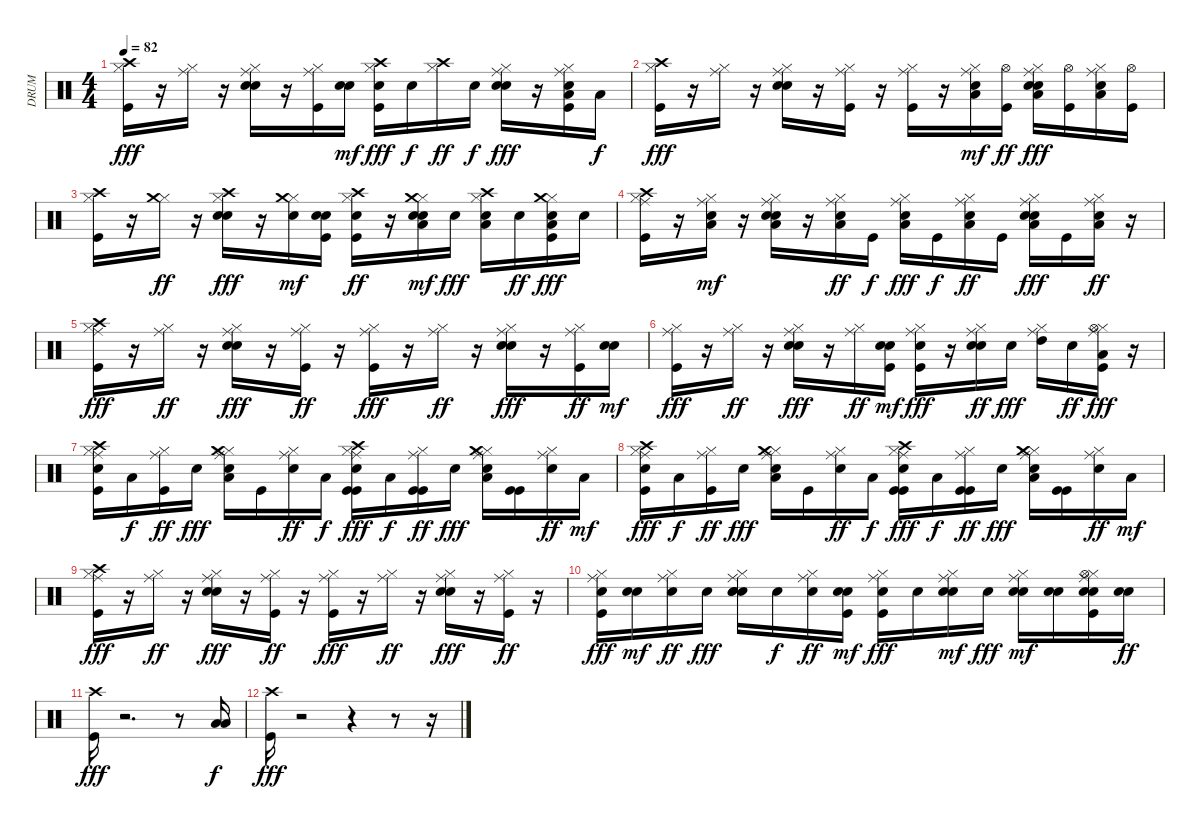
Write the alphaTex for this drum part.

\track ("DRUM" "DRUM") {instrument percussion}
\staff {score}
\articulation defaults
\ts (4 4)
\tempo 82
\clef neutral
\ks c
("Kick (hit)" "Hi-Hat (closed)" "Crash high (hit)").16{dy fff} r.16 ("Hi-Hat (closed)" "Ride (middle)").16 r.16 ("Snare (hit) 2" "Hi-Hat (closed)" "Ride (middle)" "Hand Clap (hit)").16 r.16 ("Kick (hit)" "Hi-Hat (closed)" "Ride (middle)").16 ("Snare (hit) 2" "Snare (hit) 2").16{dy mf} ("Kick (hit)" "Snare (hit) 2" "Hi-Hat (closed)" "Crash high (hit)").16{dy fff} "Snare (hit) 2".16{dy f} ("Hi-Hat (closed)" "Crash high (hit)").16{dy ff} "Snare (hit) 2".16{dy f} ("Snare (hit) 2" "Hi-Hat (closed)" "Ride (middle)" "Hand Clap (hit)").16{dy fff} r.16 ("Snare (hit) 2" "Kick (hit)" "Hi-Hat (closed)" "Ride (middle)" "Low Tom (hit)").16 "Low Floor Tom (hit)".16{dy f} |
("Kick (hit)" "Hi-Hat (closed)" "Crash high (hit)").16{dy fff} r.16 ("Hi-Hat (closed)" "Ride (middle)").16 r.16 ("Snare (hit) 2" "Hi-Hat (closed)" "Ride (middle)" "Hand Clap (hit)").16 r.16 ("Kick (hit)" "Hi-Hat (closed)" "Ride (middle)").16 r.16 ("Kick (hit)" "Hi-Hat (closed)" "Ride (middle)").16 r.16 ("Snare (hit) 2" "Hi-Hat (closed)" "Ride (middle)" "Low Floor Tom (hit)").16{dy mf} ("Kick (hit)" "Hi-Hat (open)").16{dy ff} ("Snare (hit) 2" "Hi-Hat (closed)" "Ride (middle)" "Low Floor Tom (hit)" "Hand Clap (hit)").16{dy fff} ("Kick (hit)" "Hi-Hat (open)").16 ("Snare (hit) 2" "Hi-Hat (closed)" "Ride (middle)" "Low Floor Tom (hit)").16 ("Kick (hit)" "Hi-Hat (open)").16 |
("Kick (hit)" "Hi-Hat (closed)" "Crash high (hit)").16 r.16 ("Hi-Hat (closed)" "Crash medium (hit)").16{dy ff} r.16 ("Snare (hit) 2" "Hi-Hat (closed)" "Crash high (hit)" "Hand Clap (hit)").16{dy fff} r.16 ("Hi-Hat (closed)" "Crash medium (hit)" "Snare (hit) 2").16{dy mf} ("Kick (hit)" "Snare (hit) 2" "Snare (hit) 2").16 ("Kick (hit)" "Snare (hit) 2" "Hi-Hat (closed)" "Crash high (hit)").16{dy ff} r.16 ("Snare (hit) 2" "Hi-Hat (closed)" "Crash medium (hit)" "Low Floor Tom (hit)" "Snare (hit) 2").16{dy mf} "Snare (hit) 2".16{dy fff} ("Snare (hit) 2" "Hi-Hat (closed)" "Crash high (hit)" "Low Floor Tom (hit)").16 "Snare (hit) 2".16{dy ff} ("Kick (hit)" "Snare (hit) 2" "Hi-Hat (closed)" "Crash medium (hit)" "Low Floor Tom (hit)").16{dy fff} "Snare (hit) 2".16 |
("Kick (hit)" "Hi-Hat (closed)" "Ride (middle)" "Crash high (hit)").16 r.16 ("Snare (hit) 2" "Hi-Hat (closed)" "Ride (middle)" "Low Floor Tom (hit)").16{dy mf} r.16 ("Snare (hit) 2" "Hi-Hat (closed)" "Ride (middle)" "Low Floor Tom (hit)" "Hand Clap (hit)").16 r.16 ("Snare (hit) 2" "Hi-Hat (closed)" "Ride (middle)" "Low Floor Tom (hit)").16{dy ff} "Kick (hit)".16{dy f} ("Snare (hit) 2" "Hi-Hat (closed)" "Ride (middle)" "Low Floor Tom (hit)").16{dy fff} "Kick (hit)".16{dy f} ("Snare (hit) 2" "Hi-Hat (closed)" "Ride (middle)" "Low Floor Tom (hit)").16{dy ff} "Kick (hit)".16 ("Snare (hit) 2" "Hi-Hat (closed)" "Ride (middle)" "Low Floor Tom (hit)" "Hand Clap (hit)").16{dy fff} "Kick (hit)".16 ("Snare (hit) 2" "Hi-Hat (closed)" "Ride (middle)" "Low Floor Tom (hit)").16{dy ff} r.16 |
("Kick (hit)" "Hi-Hat (closed)" "Ride (middle)" "Crash high (hit)").16{dy fff} r.16 ("Hi-Hat (closed)" "Ride (middle)").16{dy ff} r.16 ("Snare (hit) 2" "Hi-Hat (closed)" "Ride (middle)" "Hand Clap (hit)").16{dy fff} r.16 ("Kick (hit)" "Hi-Hat (closed)" "Ride (middle)").16{dy ff} r.16 ("Kick (hit)" "Hi-Hat (closed)" "Ride (middle)").16{dy fff} r.16 ("Hi-Hat (closed)" "Ride (middle)").16{dy ff} r.16 ("Snare (hit) 2" "Hi-Hat (closed)" "Ride (middle)" "Hand Clap (hit)").16{dy fff} r.16 ("Kick (hit)" "Hi-Hat (closed)" "Ride (middle)").16{dy ff} ("Snare (hit) 2" "Snare (hit) 2").16{dy mf} |
("Kick (hit)" "Hi-Hat (closed)" "Ride (middle)").16{dy fff} r.16 ("Hi-Hat (closed)" "Ride (middle)").16{dy ff} r.16 ("Snare (hit) 2" "Hi-Hat (closed)" "Ride (middle)" "Hand Clap (hit)").16{dy fff} r.16 ("Hi-Hat (closed)" "Ride (middle)").16{dy ff} ("Kick (hit)" "Snare (hit) 2" "Snare (hit) 2").16{dy mf} ("Kick (hit)" "Snare (hit) 2" "Hi-Hat (closed)" "Ride (middle)").16{dy fff} r.16 ("Snare (hit) 2" "Hi-Hat (closed)" "Ride (middle)" "Snare (hit) 2").16{dy ff} "Snare (hit) 2".16{dy fff} ("Hi-Hat (closed)" "Ride (middle)" "High Tom (hit)").16 "Snare (hit) 2".16{dy ff} ("Kick (hit)" "Hi-Hat (closed)" "Hi-Hat (open)" "Ride (middle)" "Low Floor Tom (hit)").16{dy fff} r.16 |
("Kick (hit)" "Snare (hit) 2" "Hi-Hat (closed)" "Ride (middle)" "Crash high (hit)").16 "Low Floor Tom (hit)".16{dy f} ("Kick (hit)" "Hi-Hat (closed)" "Ride (middle)").16{dy ff} "Snare (hit) 2".16{dy fff} ("Hi-Hat (closed)" "Ride (middle)" "Crash medium (hit)" "Low Floor Tom (hit)" "Hand Clap (hit)").16 "Kick (hit)".16 ("Snare (hit) 2" "Hi-Hat (closed)" "Ride (middle)").16{dy ff} "Low Floor Tom (hit)".16{dy f} ("Kick (hit)" "Snare (hit) 2" "Hi-Hat (closed)" "Ride (middle)" "Crash high (hit)" "Kick (hit)").16{dy fff} "Low Floor Tom (hit)".16{dy f} ("Kick (hit)" "Hi-Hat (closed)" "Ride (middle)" "Kick (hit)").16{dy ff} "Snare (hit) 2".16{dy fff} ("Hi-Hat (closed)" "Ride (middle)" "Crash medium (hit)" "Low Floor Tom (hit)" "Hand Clap (hit)").16 ("Kick (hit)" "Kick (hit)").16 ("Snare (hit) 2" "Hi-Hat (closed)" "Ride (middle)").16{dy ff} "Low Floor Tom (hit)".16{dy mf} |
("Kick (hit)" "Snare (hit) 2" "Hi-Hat (closed)" "Ride (middle)" "Crash high (hit)").16{dy fff} "Low Floor Tom (hit)".16{dy f} ("Kick (hit)" "Hi-Hat (closed)" "Ride (middle)").16{dy ff} "Snare (hit) 2".16{dy fff} ("Hi-Hat (closed)" "Ride (middle)" "Crash medium (hit)" "Low Floor Tom (hit)" "Hand Clap (hit)").16 "Kick (hit)".16 ("Snare (hit) 2" "Hi-Hat (closed)" "Ride (middle)").16{dy ff} "Low Floor Tom (hit)".16{dy f} ("Kick (hit)" "Snare (hit) 2" "Hi-Hat (closed)" "Ride (middle)" "Crash high (hit)" "Kick (hit)").16{dy fff} "Low Floor Tom (hit)".16{dy f} ("Kick (hit)" "Hi-Hat (closed)" "Ride (middle)" "Kick (hit)").16{dy ff} "Snare (hit) 2".16{dy fff} ("Hi-Hat (closed)" "Ride (middle)" "Crash medium (hit)" "Low Floor Tom (hit)" "Hand Clap (hit)").16 ("Kick (hit)" "Kick (hit)").16 ("Snare (hit) 2" "Hi-Hat (closed)" "Ride (middle)").16{dy ff} "Low Floor Tom (hit)".16{dy mf} |
("Kick (hit)" "Hi-Hat (closed)" "Ride (middle)" "Crash high (hit)").16{dy fff} r.16 ("Hi-Hat (closed)" "Ride (middle)").16{dy ff} r.16 ("Snare (hit) 2" "Hi-Hat (closed)" "Ride (middle)" "Hand Clap (hit)").16{dy fff} r.16 ("Kick (hit)" "Hi-Hat (closed)" "Ride (middle)").16{dy ff} r.16 ("Kick (hit)" "Hi-Hat (closed)" "Ride (middle)").16{dy fff} r.16 ("Hi-Hat (closed)" "Ride (middle)").16{dy ff} r.16 ("Snare (hit) 2" "Hi-Hat (closed)" "Ride (middle)" "Hand Clap (hit)").16{dy fff} r.16 ("Kick (hit)" "Hi-Hat (closed)" "Ride (middle)").16{dy ff} r.16 |
("Kick (hit)" "Snare (hit) 2" "Hi-Hat (closed)" "Ride (middle)").16{dy fff} ("Snare (hit) 2" "Snare (hit) 2").16{dy mf} ("Snare (hit) 2" "Hi-Hat (closed)" "Ride (middle)").16{dy ff} "Snare (hit) 2".16{dy fff} ("Snare (hit) 2" "Hi-Hat (closed)" "Ride (middle)" "Hand Clap (hit)" "Snare (hit) 2").16 "Snare (hit) 2".16{dy f} ("Snare (hit) 2" "Hi-Hat (closed)" "Ride (middle)").16{dy ff} ("Kick (hit)" "Snare (hit) 2" "Snare (hit) 2").16{dy mf} ("Kick (hit)" "Snare (hit) 2" "Hi-Hat (closed)" "Ride (middle)").16{dy fff} "Snare (hit) 2".16 ("Snare (hit) 2" "Hi-Hat (closed)" "Ride (middle)" "Snare (hit) 2").16{dy mf} "Snare (hit) 2".16{dy fff} ("Snare (hit) 2" "Hi-Hat (closed)" "Ride (middle)" "Snare (hit) 2").16{dy mf} ("Snare (hit) 2" "Snare (hit) 2").16 ("Kick (hit)" "Snare (hit) 2" "Hi-Hat (closed)" "Hi-Hat (open)" "Ride (middle)" "Snare (hit) 2").16 ("Snare (hit) 2" "Snare (hit) 2").16{dy ff} |
("Kick (hit)" "Crash high (hit)").16{dy fff} r.2{d} r.8 ("Low Tom (hit)" "Low Floor Tom (hit)").16{dy f} |
("Kick (hit)" "Crash high (hit)").16{dy fff} r.2 r.4 r.8 r.16
